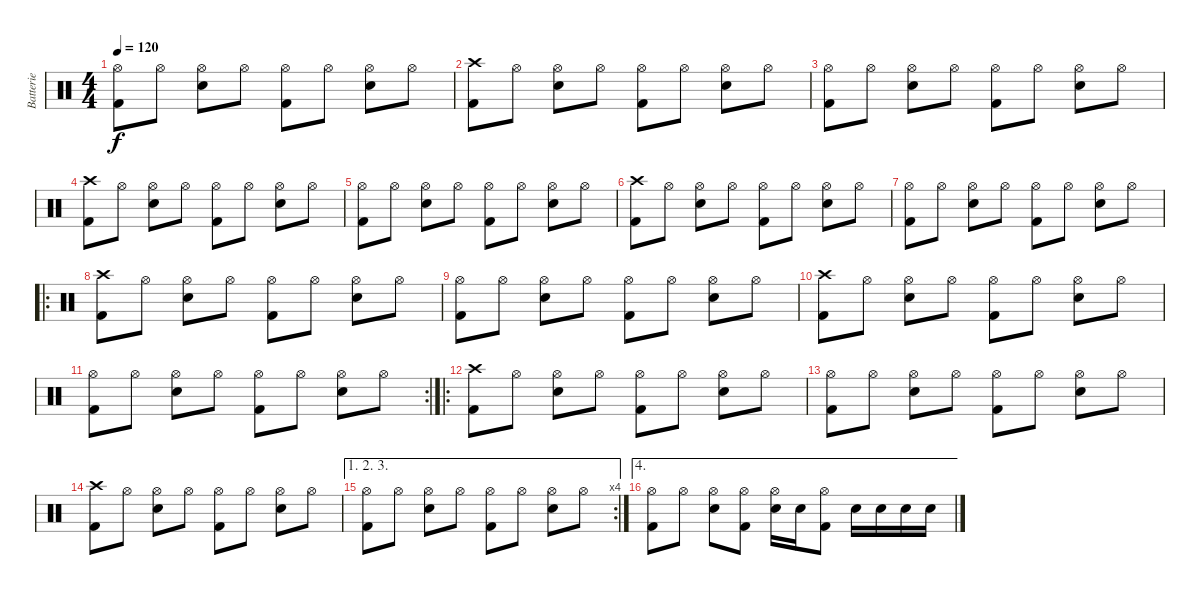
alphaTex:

\track ("Batterie" "Batterie") {instrument percussion}
\staff {score}
\articulation defaults
\ts (4 4)
\tempo 120
\clef neutral
\ks c
("Hi-Hat (open)" "Kick (hit) 2").8{dy f} "Hi-Hat (open)".8 ("Hi-Hat (open)" "Snare (hit) 2").8 "Hi-Hat (open)".8 ("Hi-Hat (open)" "Kick (hit) 2").8 "Hi-Hat (open)".8 ("Hi-Hat (open)" "Snare (hit) 2").8 "Hi-Hat (open)".8 |
("Crash high (hit)" "Kick (hit) 2").8 "Hi-Hat (open)".8 ("Hi-Hat (open)" "Snare (hit) 2").8 "Hi-Hat (open)".8 ("Hi-Hat (open)" "Kick (hit) 2").8 "Hi-Hat (open)".8 ("Hi-Hat (open)" "Snare (hit) 2").8 "Hi-Hat (open)".8 |
("Hi-Hat (open)" "Kick (hit) 2").8 "Hi-Hat (open)".8 ("Hi-Hat (open)" "Snare (hit) 2").8 "Hi-Hat (open)".8 ("Hi-Hat (open)" "Kick (hit) 2").8 "Hi-Hat (open)".8 ("Hi-Hat (open)" "Snare (hit) 2").8 "Hi-Hat (open)".8 |
("Crash high (hit)" "Kick (hit) 2").8 "Hi-Hat (open)".8 ("Hi-Hat (open)" "Snare (hit) 2").8 "Hi-Hat (open)".8 ("Hi-Hat (open)" "Kick (hit) 2").8 "Hi-Hat (open)".8 ("Hi-Hat (open)" "Snare (hit) 2").8 "Hi-Hat (open)".8 |
("Hi-Hat (open)" "Kick (hit) 2").8 "Hi-Hat (open)".8 ("Hi-Hat (open)" "Snare (hit) 2").8 "Hi-Hat (open)".8 ("Hi-Hat (open)" "Kick (hit) 2").8 "Hi-Hat (open)".8 ("Hi-Hat (open)" "Snare (hit) 2").8 "Hi-Hat (open)".8 |
("Crash high (hit)" "Kick (hit) 2").8 "Hi-Hat (open)".8 ("Hi-Hat (open)" "Snare (hit) 2").8 "Hi-Hat (open)".8 ("Hi-Hat (open)" "Kick (hit) 2").8 "Hi-Hat (open)".8 ("Hi-Hat (open)" "Snare (hit) 2").8 "Hi-Hat (open)".8 |
("Hi-Hat (open)" "Kick (hit) 2").8 "Hi-Hat (open)".8 ("Hi-Hat (open)" "Snare (hit) 2").8 "Hi-Hat (open)".8 ("Hi-Hat (open)" "Kick (hit) 2").8 "Hi-Hat (open)".8 ("Hi-Hat (open)" "Snare (hit) 2").8 "Hi-Hat (open)".8 |
\ro
("Crash high (hit)" "Kick (hit) 2").8 "Hi-Hat (open)".8 ("Hi-Hat (open)" "Snare (hit) 2").8 "Hi-Hat (open)".8 ("Hi-Hat (open)" "Kick (hit) 2").8 "Hi-Hat (open)".8 ("Hi-Hat (open)" "Snare (hit) 2").8 "Hi-Hat (open)".8 |
("Hi-Hat (open)" "Kick (hit) 2").8 "Hi-Hat (open)".8 ("Hi-Hat (open)" "Snare (hit) 2").8 "Hi-Hat (open)".8 ("Hi-Hat (open)" "Kick (hit) 2").8 "Hi-Hat (open)".8 ("Hi-Hat (open)" "Snare (hit) 2").8 "Hi-Hat (open)".8 |
("Crash high (hit)" "Kick (hit) 2").8 "Hi-Hat (open)".8 ("Hi-Hat (open)" "Snare (hit) 2").8 "Hi-Hat (open)".8 ("Hi-Hat (open)" "Kick (hit) 2").8 "Hi-Hat (open)".8 ("Hi-Hat (open)" "Snare (hit) 2").8 "Hi-Hat (open)".8 |
\rc 2
("Hi-Hat (open)" "Kick (hit) 2").8 "Hi-Hat (open)".8 ("Hi-Hat (open)" "Snare (hit) 2").8 "Hi-Hat (open)".8 ("Hi-Hat (open)" "Kick (hit) 2").8 "Hi-Hat (open)".8 ("Hi-Hat (open)" "Snare (hit) 2").8 "Hi-Hat (open)".8 |
\ro
("Crash high (hit)" "Kick (hit) 2").8 "Hi-Hat (open)".8 ("Hi-Hat (open)" "Snare (hit) 2").8 "Hi-Hat (open)".8 ("Hi-Hat (open)" "Kick (hit) 2").8 "Hi-Hat (open)".8 ("Hi-Hat (open)" "Snare (hit) 2").8 "Hi-Hat (open)".8 |
("Hi-Hat (open)" "Kick (hit) 2").8 "Hi-Hat (open)".8 ("Hi-Hat (open)" "Snare (hit) 2").8 "Hi-Hat (open)".8 ("Hi-Hat (open)" "Kick (hit) 2").8 "Hi-Hat (open)".8 ("Hi-Hat (open)" "Snare (hit) 2").8 "Hi-Hat (open)".8 |
("Crash high (hit)" "Kick (hit) 2").8 "Hi-Hat (open)".8 ("Hi-Hat (open)" "Snare (hit) 2").8 "Hi-Hat (open)".8 ("Hi-Hat (open)" "Kick (hit) 2").8 "Hi-Hat (open)".8 ("Hi-Hat (open)" "Snare (hit) 2").8 "Hi-Hat (open)".8 |
\ae (1 2 3)
\rc 4
("Hi-Hat (open)" "Kick (hit) 2").8 "Hi-Hat (open)".8 ("Hi-Hat (open)" "Snare (hit) 2").8 "Hi-Hat (open)".8 ("Hi-Hat (open)" "Kick (hit) 2").8 "Hi-Hat (open)".8 ("Hi-Hat (open)" "Snare (hit) 2").8 "Hi-Hat (open)".8 |
\ae 4
("Hi-Hat (open)" "Kick (hit) 2").8 "Hi-Hat (open)".8 ("Hi-Hat (open)" "Snare (hit) 2").8 ("Hi-Hat (open)" "Kick (hit) 2").8 ("Hi-Hat (open)" "Snare (hit) 2").16 "Snare (hit) 2".16 ("Hi-Hat (open)" "Kick (hit) 2").8 "Snare (hit) 2".16 "Snare (hit) 2".16 "Snare (hit) 2".16 "Snare (hit) 2".16
